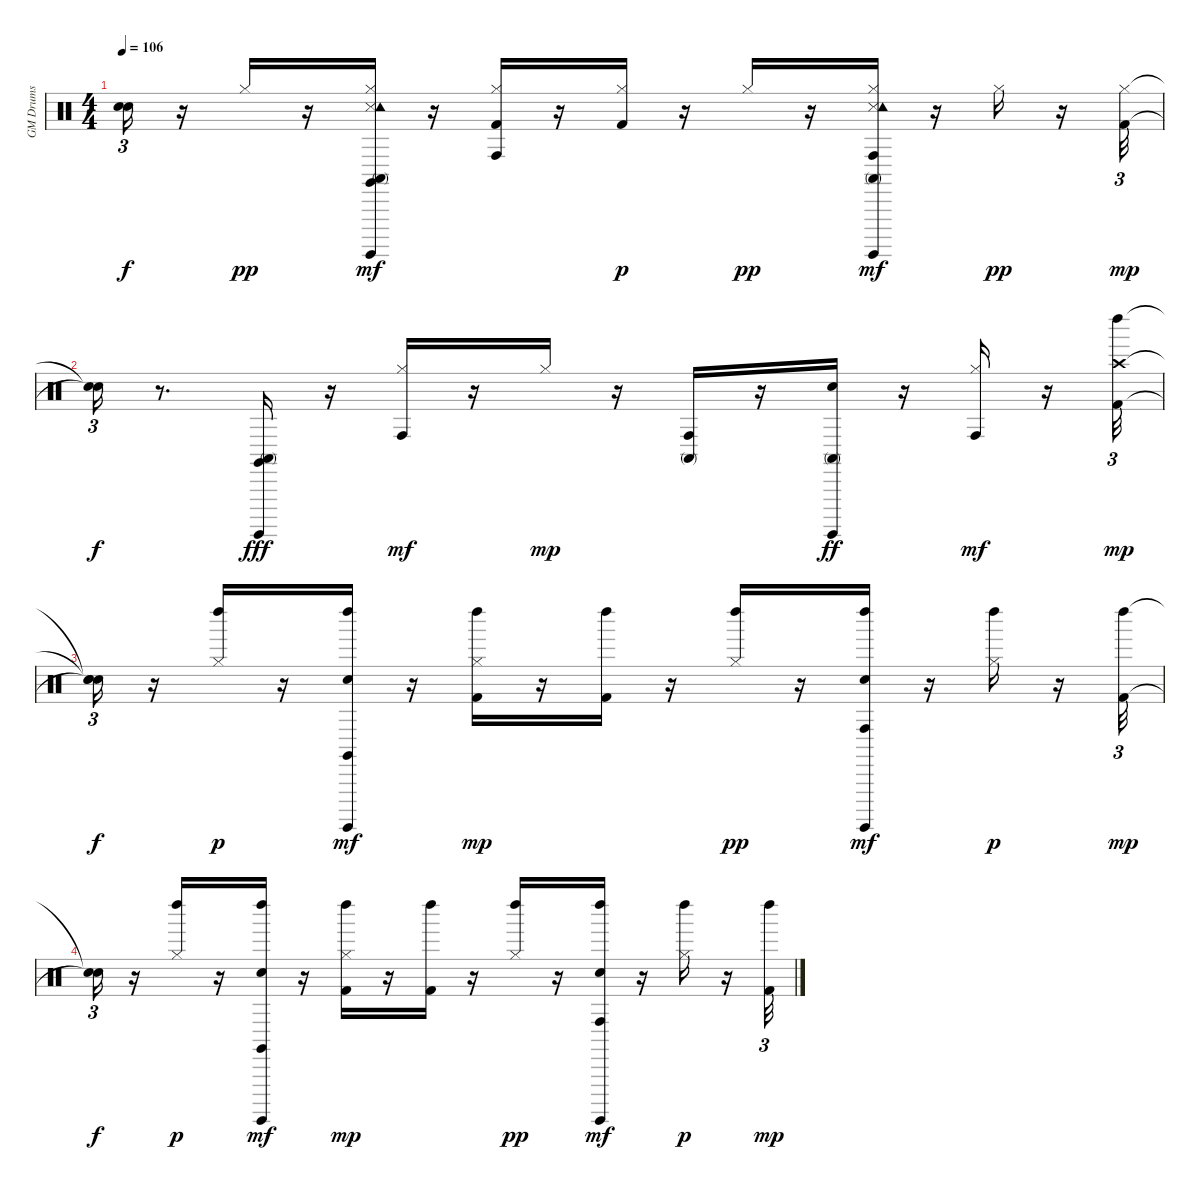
\track ("GM Drums" "GM Drums") {instrument percussion}
\staff {score}
\articulation defaults
\ts (4 4)
\tempo 106
\clef neutral
\ks c
("Snare (hit)"{t} "Snare (hit)"{t}).16{tu (3 2) dy f} r.16 "Hi-Hat (closed)".16{dy pp} r.16 ("Snare (side stick) 3" "Hi-Hat (closed)" "Tambourine (hit)" "Conga high (mute)" "Claves (hit)" "Surdo (hit)").16{dy mf} r.16 ("Kick (hit) 2" "Hi-Hat (closed)" "Conga high (hit)").16 r.16 ("Kick (hit) 2" "Hi-Hat (closed)").16{dy p} r.16 "Hi-Hat (closed)".16{dy pp} r.16 ("Snare (side stick) 3" "Hi-Hat (closed)" "Tambourine (hit)" "Conga high (mute)" "Conga high (hit)" "Surdo (hit)").16{dy mf} r.16 "Hi-Hat (closed)".16{dy pp} r.16 ("Kick (hit) 2" "Hi-Hat (closed)").32{tu (3 2) dy mp} |
("Snare (hit)"{t} "Snare (hit)"{t}).16{tu (3 2) dy f} r.8{d} ("Conga high (mute)" "Claves (hit)" "Surdo (hit)").16{dy fff} r.16 ("Hi-Hat (closed)" "Conga high (hit)").16{dy mf} r.16 "Hi-Hat (closed)".16{dy mp} r.16 ("Conga high (mute)" "Conga high (hit)").16 r.16 ("Hand Clap (hit)" "Conga high (mute)" "Surdo (hit)").16{dy ff} r.16 ("Hi-Hat (closed)" "Conga high (hit)").16{dy mf} r.16 ("Kick (hit) 2" "Crash high (hit)" "Left Maraca (hit)").32{tu (3 2) dy mp} |
("Snare (hit)"{t} "Snare (hit)"{t} "Snare (hit)"{t}).16{tu (3 2) dy f} r.16 ("Hi-Hat (closed)" "Left Maraca (hit)").16{dy p} r.16 ("Hand Clap (hit)" "Left Maraca (hit)" "Claves (hit)" "Surdo (hit)").16{dy mf} r.16 ("Kick (hit) 2" "Hi-Hat (closed)" "Left Maraca (hit)").16{dy mp} r.16 ("Kick (hit) 2" "Left Maraca (hit)").16 r.16 ("Hi-Hat (closed)" "Left Maraca (hit)").16{dy pp} r.16 ("Hand Clap (hit)" "Conga high (hit)" "Left Maraca (hit)" "Surdo (hit)").16{dy mf} r.16 ("Hi-Hat (closed)" "Left Maraca (hit)").16{dy p} r.16 ("Kick (hit) 2" "Left Maraca (hit)").32{tu (3 2) dy mp} |
("Snare (hit)"{t} "Snare (hit)"{t}).16{tu (3 2) dy f} r.16 ("Hi-Hat (closed)" "Left Maraca (hit)").16{dy p} r.16 ("Hand Clap (hit)" "Left Maraca (hit)" "Claves (hit)" "Surdo (hit)").16{dy mf} r.16 ("Kick (hit) 2" "Hi-Hat (closed)" "Left Maraca (hit)").16{dy mp} r.16 ("Kick (hit) 2" "Left Maraca (hit)").16 r.16 ("Hi-Hat (closed)" "Left Maraca (hit)").16{dy pp} r.16 ("Hand Clap (hit)" "Conga high (hit)" "Left Maraca (hit)" "Surdo (hit)").16{dy mf} r.16 ("Hi-Hat (closed)" "Left Maraca (hit)").16{dy p} r.16 ("Kick (hit) 2" "Left Maraca (hit)").32{tu (3 2) dy mp}
